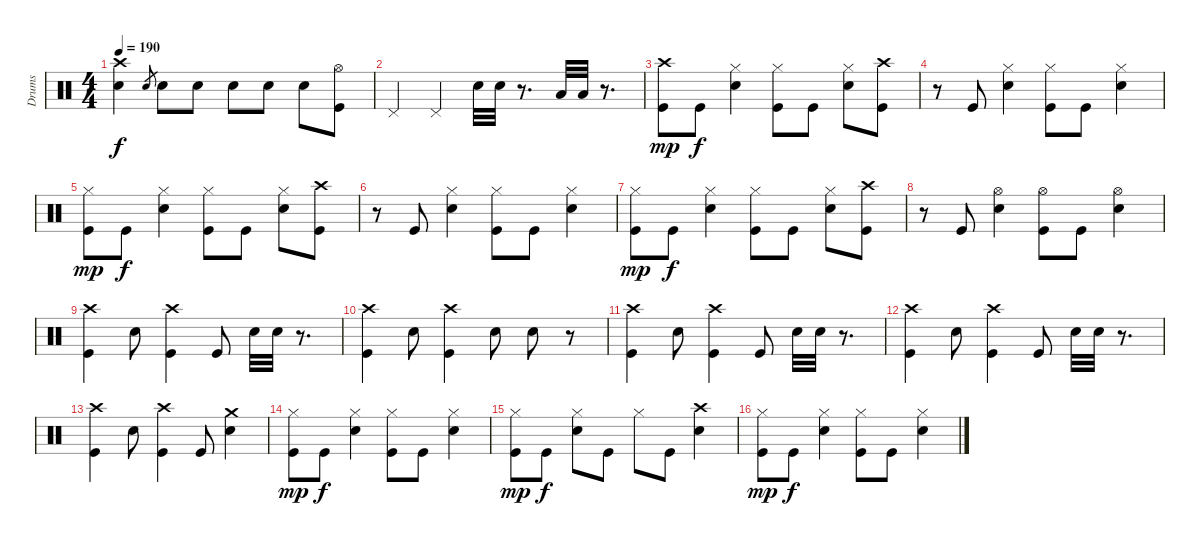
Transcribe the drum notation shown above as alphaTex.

\track ("Drums" "Drums") {instrument percussion}
\staff {score}
\articulation defaults
\ts (4 4)
\tempo 190
\clef neutral
\ks c
("Crash high (hit)" "Snare (hit) 2").4{dy f} "Snare (hit) 2".8{gr} "Snare (hit) 2".8 "Snare (hit) 2".8 "Snare (hit) 2".8 "Snare (hit) 2".8 "Snare (hit) 2".8 ("Hi-Hat (open)" "Kick (hit)").8 |
"Pedal Hi-Hat (hit)".4 "Pedal Hi-Hat (hit)".4 "Snare (hit) 2".32 "Snare (hit) 2".32 r.8{d} "Low Tom (hit)".32 "Low Tom (hit)".32 r.8{d} |
("Crash high (hit)" "Kick (hit)").8{dy mp} "Kick (hit)".8{dy f} ("Hi-Hat (closed)" "Snare (hit) 2").4 ("Hi-Hat (closed)" "Kick (hit)").8 "Kick (hit)".8 ("Hi-Hat (closed)" "Snare (hit) 2").8 ("Crash high (hit)" "Kick (hit)").8 |
r.8 "Kick (hit)".8 ("Hi-Hat (closed)" "Snare (hit) 2").4 ("Hi-Hat (closed)" "Kick (hit)").8 "Kick (hit)".8 ("Hi-Hat (closed)" "Snare (hit) 2").4 |
("Hi-Hat (closed)" "Kick (hit)").8{dy mp} "Kick (hit)".8{dy f} ("Hi-Hat (closed)" "Snare (hit) 2").4 ("Hi-Hat (closed)" "Kick (hit)").8 "Kick (hit)".8 ("Hi-Hat (closed)" "Snare (hit) 2").8 ("Crash high (hit)" "Kick (hit)").8 |
r.8 "Kick (hit)".8 ("Hi-Hat (closed)" "Snare (hit) 2").4 ("Hi-Hat (closed)" "Kick (hit)").8 "Kick (hit)".8 ("Hi-Hat (closed)" "Snare (hit) 2").4 |
("Hi-Hat (closed)" "Kick (hit)").8{dy mp} "Kick (hit)".8{dy f} ("Hi-Hat (closed)" "Snare (hit) 2").4 ("Hi-Hat (closed)" "Kick (hit)").8 "Kick (hit)".8 ("Hi-Hat (closed)" "Snare (hit) 2").8 ("Crash high (hit)" "Kick (hit)").8 |
r.8 "Kick (hit)".8 ("Hi-Hat (open)" "Snare (hit) 2").4 ("Hi-Hat (open)" "Kick (hit)").8 "Kick (hit)".8 ("Hi-Hat (open)" "Snare (hit) 2").4 |
("Crash high (hit)" "Kick (hit)").4 "Snare (hit) 2".8 ("Crash high (hit)" "Kick (hit)").4 "Kick (hit)".8 "Snare (hit) 2".32 "Snare (hit) 2".32 r.8{d} |
("Crash high (hit)" "Kick (hit)").4 "Snare (hit) 2".8 ("Crash high (hit)" "Kick (hit)").4 "Snare (hit) 2".8 "Snare (hit) 2".8 r.8 |
("Crash high (hit)" "Kick (hit)").4 "Snare (hit) 2".8 ("Crash high (hit)" "Kick (hit)").4 "Kick (hit)".8 "Snare (hit) 2".32 "Snare (hit) 2".32 r.8{d} |
("Crash high (hit)" "Kick (hit)").4 "Snare (hit) 2".8 ("Crash high (hit)" "Kick (hit)").4 "Kick (hit)".8 "Snare (hit) 2".32 "Snare (hit) 2".32 r.8{d} |
("Crash high (hit)" "Kick (hit)").4 "Snare (hit) 2".8 ("Crash high (hit)" "Kick (hit)").4 "Kick (hit)".8 ("Crash medium (hit)" "Snare (hit) 2").4 |
("Hi-Hat (closed)" "Kick (hit)").8{dy mp} "Kick (hit)".8{dy f} ("Hi-Hat (closed)" "Snare (hit) 2").4 ("Hi-Hat (closed)" "Kick (hit)").8 "Kick (hit)".8 ("Hi-Hat (closed)" "Snare (hit) 2").4 |
("Hi-Hat (closed)" "Kick (hit)").8{dy mp} "Kick (hit)".8{dy f} ("Hi-Hat (closed)" "Snare (hit) 2").8 "Kick (hit)".8 "Hi-Hat (closed)".8 "Kick (hit)".8 ("Crash high (hit)" "Snare (hit) 2").4 |
("Hi-Hat (closed)" "Kick (hit)").8{dy mp} "Kick (hit)".8{dy f} ("Hi-Hat (closed)" "Snare (hit) 2").4 ("Hi-Hat (closed)" "Kick (hit)").8 "Kick (hit)".8 ("Hi-Hat (closed)" "Snare (hit) 2").4
